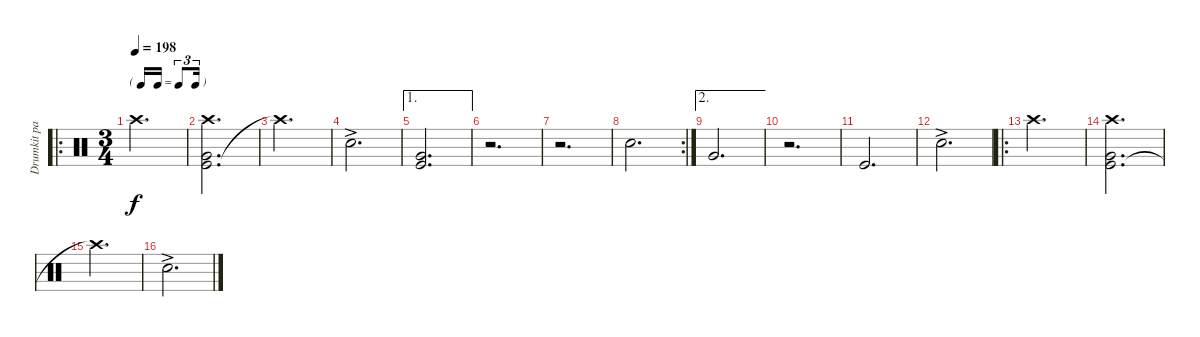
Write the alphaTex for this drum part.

\track ("Drumkit part 2" "Drumkit pa") {instrument percussion}
\staff {score}
\articulation defaults
\ro
\ts (3 4)
\tf triplet16th
\tempo 198
\clef neutral
\ks c "Crash high (hit)".2{d dy f}
|
("Kick (hit)" "Crash high (hit)" "Very Low Tom (hit)").2{d} |
"Crash high (hit)"{t}.2{d} |
"Snare (hit) 2"{ac}.2{d} |
\ae 1
("Kick (hit)" "Very Low Tom (hit)").2{d} |
r.2{d} |
r.2{d} |
\rc 2 "Snare (hit) 2".2{d}
|
\ae 2 "Very Low Tom (hit)".2{d}
|
r.2{d} |
"Kick (hit)".2{d} |
"Snare (hit) 2"{ac}.2{d} |
\ro "Crash high (hit)".2{d}
|
("Kick (hit)" "Crash high (hit)" "Very Low Tom (hit)").2{d} |
"Crash high (hit)"{t}.2{d} |
"Snare (hit) 2"{ac}.2{d}
